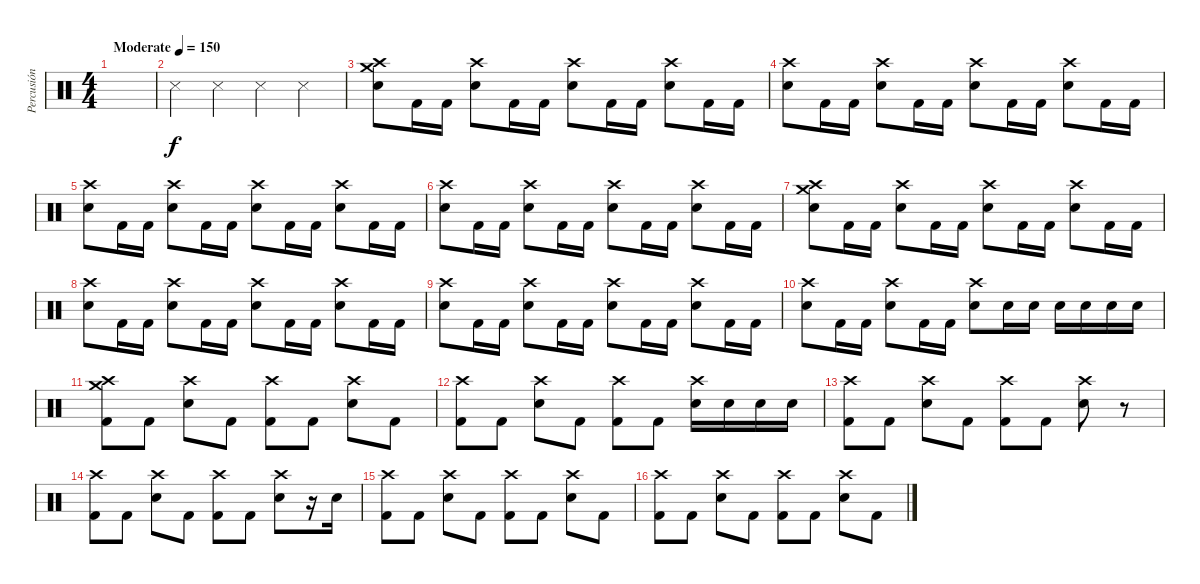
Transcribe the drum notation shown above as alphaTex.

\track ("Percusión" "Percusión") {instrument percussion}
\staff {score}
\articulation defaults
\ts (4 4)
\tempo (150 "Moderate")
\clef neutral
\ks c
|
"Snare (side stick) 3".4 "Snare (side stick) 3".4 "Snare (side stick) 3".4 "Snare (side stick) 3".4 |
("Electric Snare (hit)" "Crash high (hit)" "Crash medium (hit)").8 "Kick (hit) 2".16 "Kick (hit) 2".16 ("Electric Snare (hit)" "Crash high (hit)").8 "Kick (hit) 2".16 "Kick (hit) 2".16 ("Electric Snare (hit)" "Crash high (hit)").8 "Kick (hit) 2".16 "Kick (hit) 2".16 ("Electric Snare (hit)" "Crash high (hit)").8 "Kick (hit) 2".16 "Kick (hit) 2".16 |
("Electric Snare (hit)" "Crash high (hit)").8 "Kick (hit) 2".16 "Kick (hit) 2".16 ("Electric Snare (hit)" "Crash high (hit)").8 "Kick (hit) 2".16 "Kick (hit) 2".16 ("Electric Snare (hit)" "Crash high (hit)").8 "Kick (hit) 2".16 "Kick (hit) 2".16 ("Electric Snare (hit)" "Crash high (hit)").8 "Kick (hit) 2".16 "Kick (hit) 2".16 |
("Electric Snare (hit)" "Crash high (hit)").8 "Kick (hit) 2".16 "Kick (hit) 2".16 ("Electric Snare (hit)" "Crash high (hit)").8 "Kick (hit) 2".16 "Kick (hit) 2".16 ("Electric Snare (hit)" "Crash high (hit)").8 "Kick (hit) 2".16 "Kick (hit) 2".16 ("Electric Snare (hit)" "Crash high (hit)").8 "Kick (hit) 2".16 "Kick (hit) 2".16 |
("Electric Snare (hit)" "Crash high (hit)").8 "Kick (hit) 2".16 "Kick (hit) 2".16 ("Electric Snare (hit)" "Crash high (hit)").8 "Kick (hit) 2".16 "Kick (hit) 2".16 ("Electric Snare (hit)" "Crash high (hit)").8 "Kick (hit) 2".16 "Kick (hit) 2".16 ("Electric Snare (hit)" "Crash high (hit)").8 "Kick (hit) 2".16 "Kick (hit) 2".16 |
("Electric Snare (hit)" "Crash high (hit)" "Crash medium (hit)").8 "Kick (hit) 2".16 "Kick (hit) 2".16 ("Electric Snare (hit)" "Crash high (hit)").8 "Kick (hit) 2".16 "Kick (hit) 2".16 ("Electric Snare (hit)" "Crash high (hit)").8 "Kick (hit) 2".16 "Kick (hit) 2".16 ("Electric Snare (hit)" "Crash high (hit)").8 "Kick (hit) 2".16 "Kick (hit) 2".16 |
("Electric Snare (hit)" "Crash high (hit)").8 "Kick (hit) 2".16 "Kick (hit) 2".16 ("Electric Snare (hit)" "Crash high (hit)").8 "Kick (hit) 2".16 "Kick (hit) 2".16 ("Electric Snare (hit)" "Crash high (hit)").8 "Kick (hit) 2".16 "Kick (hit) 2".16 ("Electric Snare (hit)" "Crash high (hit)").8 "Kick (hit) 2".16 "Kick (hit) 2".16 |
("Electric Snare (hit)" "Crash high (hit)").8 "Kick (hit) 2".16 "Kick (hit) 2".16 ("Electric Snare (hit)" "Crash high (hit)").8 "Kick (hit) 2".16 "Kick (hit) 2".16 ("Electric Snare (hit)" "Crash high (hit)").8 "Kick (hit) 2".16 "Kick (hit) 2".16 ("Electric Snare (hit)" "Crash high (hit)").8 "Kick (hit) 2".16 "Kick (hit) 2".16 |
("Electric Snare (hit)" "Crash high (hit)").8 "Kick (hit) 2".16 "Kick (hit) 2".16 ("Electric Snare (hit)" "Crash high (hit)").8 "Kick (hit) 2".16 "Kick (hit) 2".16 ("Electric Snare (hit)" "Crash high (hit)").8 "Electric Snare (hit)".16 "Electric Snare (hit)".16 "Electric Snare (hit)".16 "Electric Snare (hit)".16 "Electric Snare (hit)".16 "Electric Snare (hit)".16 |
("Kick (hit) 2" "Crash medium (hit)" "Crash high (hit)").8 "Kick (hit) 2".8 ("Electric Snare (hit)" "Crash high (hit)").8 "Kick (hit) 2".8 ("Kick (hit) 2" "Crash high (hit)").8 "Kick (hit) 2".8 ("Electric Snare (hit)" "Crash high (hit)").8 "Kick (hit) 2".8 |
("Kick (hit) 2" "Crash high (hit)").8 "Kick (hit) 2".8 ("Electric Snare (hit)" "Crash high (hit)").8 "Kick (hit) 2".8 ("Kick (hit) 2" "Crash high (hit)").8 "Kick (hit) 2".8 ("Electric Snare (hit)" "Crash high (hit)").16 "Electric Snare (hit)".16 "Electric Snare (hit)".16 "Electric Snare (hit)".16 |
("Kick (hit) 2" "Crash high (hit)").8 "Kick (hit) 2".8 ("Electric Snare (hit)" "Crash high (hit)").8 "Kick (hit) 2".8 ("Kick (hit) 2" "Crash high (hit)").8 "Kick (hit) 2".8 ("Electric Snare (hit)" "Crash high (hit)").8 r.8 |
("Kick (hit) 2" "Crash high (hit)").8 "Kick (hit) 2".8 ("Electric Snare (hit)" "Crash high (hit)").8 "Kick (hit) 2".8 ("Kick (hit) 2" "Crash high (hit)").8 "Kick (hit) 2".8 ("Electric Snare (hit)" "Crash high (hit)").8 r.16 "Electric Snare (hit)".16 |
("Kick (hit) 2" "Crash high (hit)").8 "Kick (hit) 2".8 ("Electric Snare (hit)" "Crash high (hit)").8 "Kick (hit) 2".8 ("Kick (hit) 2" "Crash high (hit)").8 "Kick (hit) 2".8 ("Electric Snare (hit)" "Crash high (hit)").8 "Kick (hit) 2".8 |
("Kick (hit) 2" "Crash high (hit)").8 "Kick (hit) 2".8 ("Electric Snare (hit)" "Crash high (hit)").8 "Kick (hit) 2".8 ("Kick (hit) 2" "Crash high (hit)").8 "Kick (hit) 2".8 ("Electric Snare (hit)" "Crash high (hit)").8 "Kick (hit) 2".8
